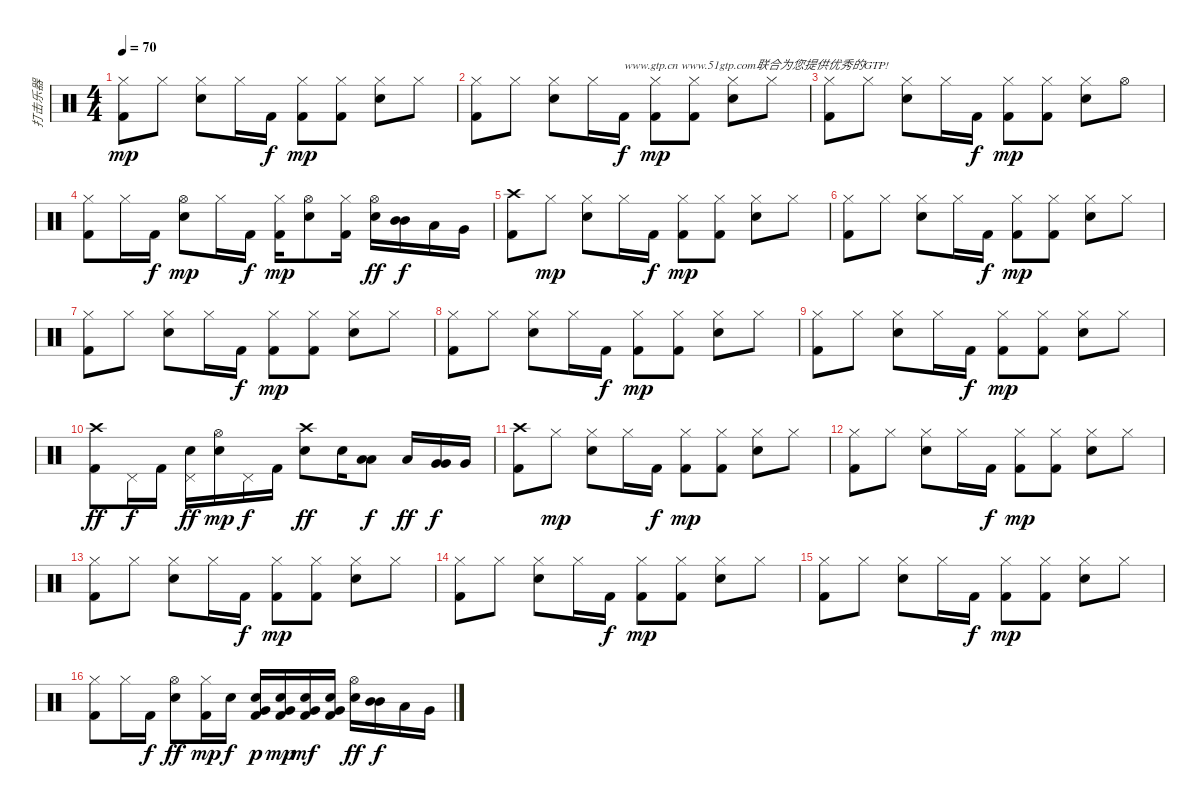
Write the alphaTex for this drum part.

\track ("打击乐器" "打击乐器") {instrument percussion}
\staff {score}
\articulation defaults
\ts (4 4)
\tempo 70
\clef neutral
\ks c
("Hi-Hat (closed)" "Kick (hit) 2").8{dy mp} "Hi-Hat (closed)".8 ("Hi-Hat (closed)" "Electric Snare (hit)").8 "Hi-Hat (closed)".16 "Kick (hit) 2".16{dy f} ("Hi-Hat (closed)" "Kick (hit) 2").8{dy mp} ("Hi-Hat (closed)" "Kick (hit) 2").8 ("Hi-Hat (closed)" "Electric Snare (hit)").8 "Hi-Hat (closed)".8 |
("Hi-Hat (closed)" "Kick (hit) 2").8 "Hi-Hat (closed)".8 ("Hi-Hat (closed)" "Electric Snare (hit)").8 "Hi-Hat (closed)".16 "Kick (hit) 2".16{txt "www.gtp.cn www.51gtp.com联合为您提供优秀的GTP!" dy f} ("Hi-Hat (closed)" "Kick (hit) 2").8{dy mp} ("Hi-Hat (closed)" "Kick (hit) 2").8 ("Hi-Hat (closed)" "Electric Snare (hit)").8 "Hi-Hat (closed)".8 |
("Hi-Hat (closed)" "Kick (hit) 2").8 "Hi-Hat (closed)".8 ("Hi-Hat (closed)" "Electric Snare (hit)").8 "Hi-Hat (closed)".16 "Kick (hit) 2".16{dy f} ("Hi-Hat (closed)" "Kick (hit) 2").8{dy mp} ("Hi-Hat (closed)" "Kick (hit) 2").8 ("Hi-Hat (closed)" "Electric Snare (hit)").8 "Hi-Hat (open)".8 |
("Hi-Hat (closed)" "Kick (hit) 2").8 "Hi-Hat (closed)".16 "Kick (hit) 2".16{dy f} ("Hi-Hat (open)" "Electric Snare (hit)").8{dy mp} "Hi-Hat (closed)".16 "Kick (hit) 2".16{dy f} ("Hi-Hat (closed)" "Kick (hit) 2").16{dy mp} ("Hi-Hat (open)" "Electric Snare (hit)").8 ("Hi-Hat (closed)" "Kick (hit) 2").16 ("Hi-Hat (open)" "Electric Snare (hit)").16{dy ff} ("Mid Tom (hit)" "Mid Tom (hit)").16{bd 60 dy f} "Low Tom (hit)".16 "Very Low Tom (hit)".16 |
("Crash high (hit)" "Kick (hit) 2").8 "Hi-Hat (closed)".8{dy mp} ("Hi-Hat (closed)" "Electric Snare (hit)").8 "Hi-Hat (closed)".16 "Kick (hit) 2".16{dy f} ("Hi-Hat (closed)" "Kick (hit) 2").8{dy mp} ("Hi-Hat (closed)" "Kick (hit) 2").8 ("Hi-Hat (closed)" "Electric Snare (hit)").8 "Hi-Hat (closed)".8 |
("Hi-Hat (closed)" "Kick (hit) 2").8 "Hi-Hat (closed)".8 ("Hi-Hat (closed)" "Electric Snare (hit)").8 "Hi-Hat (closed)".16 "Kick (hit) 2".16{dy f} ("Hi-Hat (closed)" "Kick (hit) 2").8{dy mp} ("Hi-Hat (closed)" "Kick (hit) 2").8 ("Hi-Hat (closed)" "Electric Snare (hit)").8 "Hi-Hat (closed)".8 |
("Hi-Hat (closed)" "Kick (hit) 2").8 "Hi-Hat (closed)".8 ("Hi-Hat (closed)" "Electric Snare (hit)").8 "Hi-Hat (closed)".16 "Kick (hit) 2".16{dy f} ("Hi-Hat (closed)" "Kick (hit) 2").8{dy mp} ("Hi-Hat (closed)" "Kick (hit) 2").8 ("Hi-Hat (closed)" "Electric Snare (hit)").8 "Hi-Hat (closed)".8 |
("Hi-Hat (closed)" "Kick (hit) 2").8 "Hi-Hat (closed)".8 ("Hi-Hat (closed)" "Electric Snare (hit)").8 "Hi-Hat (closed)".16 "Kick (hit) 2".16{dy f} ("Hi-Hat (closed)" "Kick (hit) 2").8{dy mp} ("Hi-Hat (closed)" "Kick (hit) 2").8 ("Hi-Hat (closed)" "Electric Snare (hit)").8 "Hi-Hat (closed)".8 |
("Hi-Hat (closed)" "Kick (hit) 2").8 "Hi-Hat (closed)".8 ("Hi-Hat (closed)" "Electric Snare (hit)").8 "Hi-Hat (closed)".16 "Kick (hit) 2".16{dy f} ("Hi-Hat (closed)" "Kick (hit) 2").8{dy mp} ("Hi-Hat (closed)" "Kick (hit) 2").8 ("Hi-Hat (closed)" "Electric Snare (hit)").8 "Hi-Hat (closed)".8 |
("Kick (hit) 2" "Crash high (hit)").8{dy ff} "Pedal Hi-Hat (hit)".16{dy f} "Kick (hit) 2".16 ("Electric Snare (hit)" "Pedal Hi-Hat (hit)").16{dy ff} ("Electric Snare (hit)" "Hi-Hat (open)").16{dy mp} "Pedal Hi-Hat (hit)".16{dy f} "Kick (hit) 2".16 ("Electric Snare (hit)" "Crash high (hit)").8{dy ff} "Electric Snare (hit)".16 ("Low Tom (hit)" "Low Tom (hit)").8{bd 60 dy f} "Low Tom (hit)".16{dy ff} ("Very Low Tom (hit)" "Very Low Tom (hit)").16{bd 60 dy f} "Very Low Tom (hit)".16 |
("Crash high (hit)" "Kick (hit) 2").8 "Hi-Hat (closed)".8{dy mp} ("Hi-Hat (closed)" "Electric Snare (hit)").8 "Hi-Hat (closed)".16 "Kick (hit) 2".16{dy f} ("Hi-Hat (closed)" "Kick (hit) 2").8{dy mp} ("Hi-Hat (closed)" "Kick (hit) 2").8 ("Hi-Hat (closed)" "Electric Snare (hit)").8 "Hi-Hat (closed)".8 |
("Hi-Hat (closed)" "Kick (hit) 2").8 "Hi-Hat (closed)".8 ("Hi-Hat (closed)" "Electric Snare (hit)").8 "Hi-Hat (closed)".16 "Kick (hit) 2".16{dy f} ("Hi-Hat (closed)" "Kick (hit) 2").8{dy mp} ("Hi-Hat (closed)" "Kick (hit) 2").8 ("Hi-Hat (closed)" "Electric Snare (hit)").8 "Hi-Hat (closed)".8 |
("Hi-Hat (closed)" "Kick (hit) 2").8 "Hi-Hat (closed)".8 ("Hi-Hat (closed)" "Electric Snare (hit)").8 "Hi-Hat (closed)".16 "Kick (hit) 2".16{dy f} ("Hi-Hat (closed)" "Kick (hit) 2").8{dy mp} ("Hi-Hat (closed)" "Kick (hit) 2").8 ("Hi-Hat (closed)" "Electric Snare (hit)").8 "Hi-Hat (closed)".8 |
("Hi-Hat (closed)" "Kick (hit) 2").8 "Hi-Hat (closed)".8 ("Hi-Hat (closed)" "Electric Snare (hit)").8 "Hi-Hat (closed)".16 "Kick (hit) 2".16{dy f} ("Hi-Hat (closed)" "Kick (hit) 2").8{dy mp} ("Hi-Hat (closed)" "Kick (hit) 2").8 ("Hi-Hat (closed)" "Electric Snare (hit)").8 "Hi-Hat (closed)".8 |
("Hi-Hat (closed)" "Kick (hit) 2").8 "Hi-Hat (closed)".8 ("Hi-Hat (closed)" "Electric Snare (hit)").8 "Hi-Hat (closed)".16 "Kick (hit) 2".16{dy f} ("Hi-Hat (closed)" "Kick (hit) 2").8{dy mp} ("Hi-Hat (closed)" "Kick (hit) 2").8 ("Hi-Hat (closed)" "Electric Snare (hit)").8 "Hi-Hat (closed)".8 |
("Hi-Hat (closed)" "Kick (hit) 2").8 "Hi-Hat (closed)".16 "Kick (hit) 2".16{dy f} ("Hi-Hat (open)" "Electric Snare (hit)").8{dy ff} ("Hi-Hat (closed)" "Kick (hit) 2").16{dy mp} "Electric Snare (hit)".16{dy f} ("Very Low Tom (hit)" "Electric Snare (hit)" "Kick (hit) 2").16{dy p} ("Very Low Tom (hit)" "Electric Snare (hit)" "Kick (hit) 2").16{dy mp} ("Very Low Tom (hit)" "Electric Snare (hit)" "Kick (hit) 2").16{dy mf} ("Very Low Tom (hit)" "Electric Snare (hit)" "Kick (hit) 2").16 ("Hi-Hat (open)" "Electric Snare (hit)").16{dy ff} ("Mid Tom (hit)" "Mid Tom (hit)").16{bd 60 dy f} "Low Tom (hit)".16 "Very Low Tom (hit)".16
